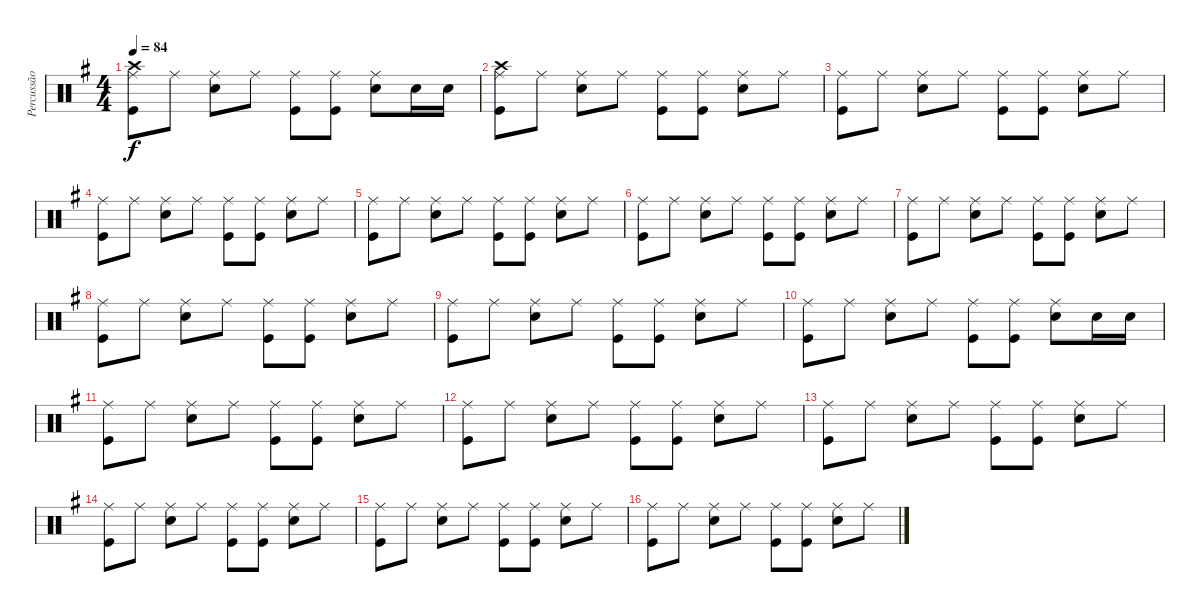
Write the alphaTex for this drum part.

\track ("Percussão" "Percussão") {instrument percussion}
\staff {score}
\articulation defaults
\ts (4 4)
\tempo 84
\clef neutral
\ks g
("Crash high (hit)" "Ride (middle)" "Kick (hit)").8{dy f} "Ride (middle)".8 ("Ride (middle)" "Snare (hit) 2").8 "Ride (middle)".8 ("Ride (middle)" "Kick (hit)").8 ("Ride (middle)" "Kick (hit)").8 ("Ride (middle)" "Snare (hit) 2").8 "Snare (hit) 2".16 "Snare (hit) 2".16 |
("Crash high (hit)" "Ride (middle)" "Kick (hit)").8 "Ride (middle)".8 ("Ride (middle)" "Snare (hit) 2").8 "Ride (middle)".8 ("Ride (middle)" "Kick (hit)").8 ("Ride (middle)" "Kick (hit)").8 ("Ride (middle)" "Snare (hit) 2").8 "Ride (middle)".8 |
("Ride (middle)" "Kick (hit)").8 "Ride (middle)".8 ("Ride (middle)" "Snare (hit) 2").8 "Ride (middle)".8 ("Ride (middle)" "Kick (hit)").8 ("Ride (middle)" "Kick (hit)").8 ("Ride (middle)" "Snare (hit) 2").8 "Ride (middle)".8 |
("Ride (middle)" "Kick (hit)").8 "Ride (middle)".8 ("Ride (middle)" "Snare (hit) 2").8 "Ride (middle)".8 ("Ride (middle)" "Kick (hit)").8 ("Ride (middle)" "Kick (hit)").8 ("Ride (middle)" "Snare (hit) 2").8 "Ride (middle)".8 |
("Ride (middle)" "Kick (hit)").8 "Ride (middle)".8 ("Ride (middle)" "Snare (hit) 2").8 "Ride (middle)".8 ("Ride (middle)" "Kick (hit)").8 ("Ride (middle)" "Kick (hit)").8 ("Ride (middle)" "Snare (hit) 2").8 "Ride (middle)".8 |
("Ride (middle)" "Kick (hit)").8 "Ride (middle)".8 ("Ride (middle)" "Snare (hit) 2").8 "Ride (middle)".8 ("Ride (middle)" "Kick (hit)").8 ("Ride (middle)" "Kick (hit)").8 ("Ride (middle)" "Snare (hit) 2").8 "Ride (middle)".8 |
("Ride (middle)" "Kick (hit)").8 "Ride (middle)".8 ("Ride (middle)" "Snare (hit) 2").8 "Ride (middle)".8 ("Ride (middle)" "Kick (hit)").8 ("Ride (middle)" "Kick (hit)").8 ("Ride (middle)" "Snare (hit) 2").8 "Ride (middle)".8 |
("Ride (middle)" "Kick (hit)").8 "Ride (middle)".8 ("Ride (middle)" "Snare (hit) 2").8 "Ride (middle)".8 ("Ride (middle)" "Kick (hit)").8 ("Ride (middle)" "Kick (hit)").8 ("Ride (middle)" "Snare (hit) 2").8 "Ride (middle)".8 |
("Ride (middle)" "Kick (hit)").8 "Ride (middle)".8 ("Ride (middle)" "Snare (hit) 2").8 "Ride (middle)".8 ("Ride (middle)" "Kick (hit)").8 ("Ride (middle)" "Kick (hit)").8 ("Ride (middle)" "Snare (hit) 2").8 "Ride (middle)".8 |
("Ride (middle)" "Kick (hit)").8 "Ride (middle)".8 ("Ride (middle)" "Snare (hit) 2").8 "Ride (middle)".8 ("Ride (middle)" "Kick (hit)").8 ("Ride (middle)" "Kick (hit)").8 ("Ride (middle)" "Snare (hit) 2").8 "Snare (hit) 2".16 "Snare (hit) 2".16 |
("Ride (middle)" "Kick (hit)").8 "Ride (middle)".8 ("Ride (middle)" "Snare (hit) 2").8 "Ride (middle)".8 ("Ride (middle)" "Kick (hit)").8 ("Ride (middle)" "Kick (hit)").8 ("Ride (middle)" "Snare (hit) 2").8 "Ride (middle)".8 |
("Ride (middle)" "Kick (hit)").8 "Ride (middle)".8 ("Ride (middle)" "Snare (hit) 2").8 "Ride (middle)".8 ("Ride (middle)" "Kick (hit)").8 ("Ride (middle)" "Kick (hit)").8 ("Ride (middle)" "Snare (hit) 2").8 "Ride (middle)".8 |
("Ride (middle)" "Kick (hit)").8 "Ride (middle)".8 ("Ride (middle)" "Snare (hit) 2").8 "Ride (middle)".8 ("Ride (middle)" "Kick (hit)").8 ("Ride (middle)" "Kick (hit)").8 ("Ride (middle)" "Snare (hit) 2").8 "Ride (middle)".8 |
("Ride (middle)" "Kick (hit)").8 "Ride (middle)".8 ("Ride (middle)" "Snare (hit) 2").8 "Ride (middle)".8 ("Ride (middle)" "Kick (hit)").8 ("Ride (middle)" "Kick (hit)").8 ("Ride (middle)" "Snare (hit) 2").8 "Ride (middle)".8 |
("Ride (middle)" "Kick (hit)").8 "Ride (middle)".8 ("Ride (middle)" "Snare (hit) 2").8 "Ride (middle)".8 ("Ride (middle)" "Kick (hit)").8 ("Ride (middle)" "Kick (hit)").8 ("Ride (middle)" "Snare (hit) 2").8 "Ride (middle)".8 |
("Ride (middle)" "Kick (hit)").8 "Ride (middle)".8 ("Ride (middle)" "Snare (hit) 2").8 "Ride (middle)".8 ("Ride (middle)" "Kick (hit)").8 ("Ride (middle)" "Kick (hit)").8 ("Ride (middle)" "Snare (hit) 2").8 "Ride (middle)".8
